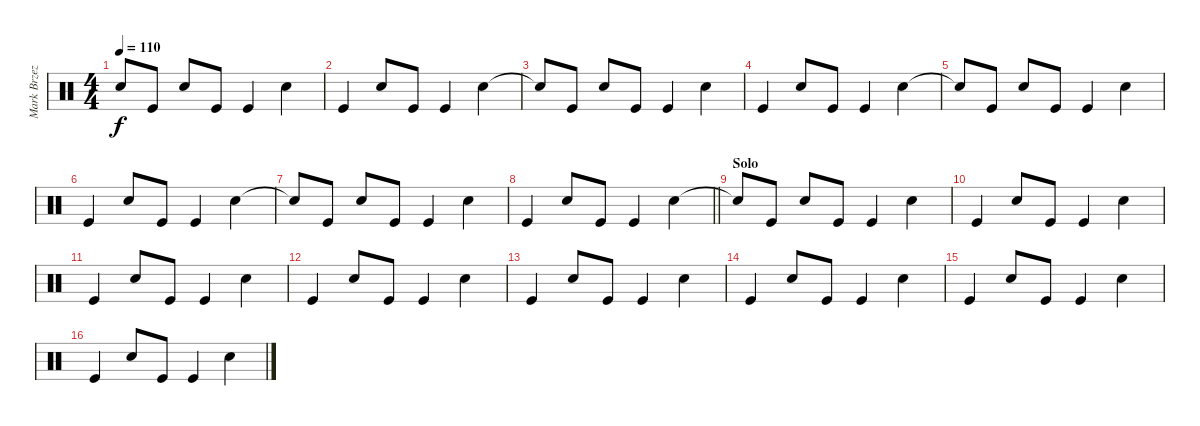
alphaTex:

\track ("Mark Brzezicki - Toms, Snare & Bass Drum" "Mark Brzez") {instrument percussion}
\staff {score}
\articulation defaults
\ts (4 4)
\tempo 110
\clef neutral
\ks c "Snare (hit)"{t}.8{dy f} "Kick (hit)".8 "Electric Snare (hit)".8 "Kick (hit)".8 "Kick (hit)".4 "Electric Snare (hit)".4
|
"Kick (hit)".4 "Electric Snare (hit)".8 "Kick (hit)".8 "Kick (hit)".4 "Electric Snare (hit)".4 |
"Snare (hit)"{t}.8 "Kick (hit)".8 "Electric Snare (hit)".8 "Kick (hit)".8 "Kick (hit)".4 "Electric Snare (hit)".4 |
"Kick (hit)".4 "Electric Snare (hit)".8 "Kick (hit)".8 "Kick (hit)".4 "Electric Snare (hit)".4 |
"Snare (hit)"{t}.8 "Kick (hit)".8 "Electric Snare (hit)".8 "Kick (hit)".8 "Kick (hit)".4 "Electric Snare (hit)".4 |
"Kick (hit)".4 "Electric Snare (hit)".8 "Kick (hit)".8 "Kick (hit)".4 "Electric Snare (hit)".4 |
"Snare (hit)"{t}.8 "Kick (hit)".8 "Electric Snare (hit)".8 "Kick (hit)".8 "Kick (hit)".4 "Electric Snare (hit)".4 |
\barLineRight lightlight "Kick (hit)".4 "Electric Snare (hit)".8 "Kick (hit)".8 "Kick (hit)".4 "Electric Snare (hit)".4
|
\section ("" "Solo")
"Snare (hit)"{t}.8 "Kick (hit)".8 "Electric Snare (hit)".8 "Kick (hit)".8 "Kick (hit)".4 "Electric Snare (hit)".4 |
"Kick (hit)".4 "Electric Snare (hit)".8 "Kick (hit)".8 "Kick (hit)".4 "Electric Snare (hit)".4 |
"Kick (hit)".4 "Electric Snare (hit)".8 "Kick (hit)".8 "Kick (hit)".4 "Electric Snare (hit)".4 |
"Kick (hit)".4 "Electric Snare (hit)".8 "Kick (hit)".8 "Kick (hit)".4 "Electric Snare (hit)".4 |
"Kick (hit)".4 "Electric Snare (hit)".8 "Kick (hit)".8 "Kick (hit)".4 "Electric Snare (hit)".4 |
"Kick (hit)".4 "Electric Snare (hit)".8 "Kick (hit)".8 "Kick (hit)".4 "Electric Snare (hit)".4 |
"Kick (hit)".4 "Electric Snare (hit)".8 "Kick (hit)".8 "Kick (hit)".4 "Electric Snare (hit)".4 |
"Kick (hit)".4 "Electric Snare (hit)".8 "Kick (hit)".8 "Kick (hit)".4 "Electric Snare (hit)".4
